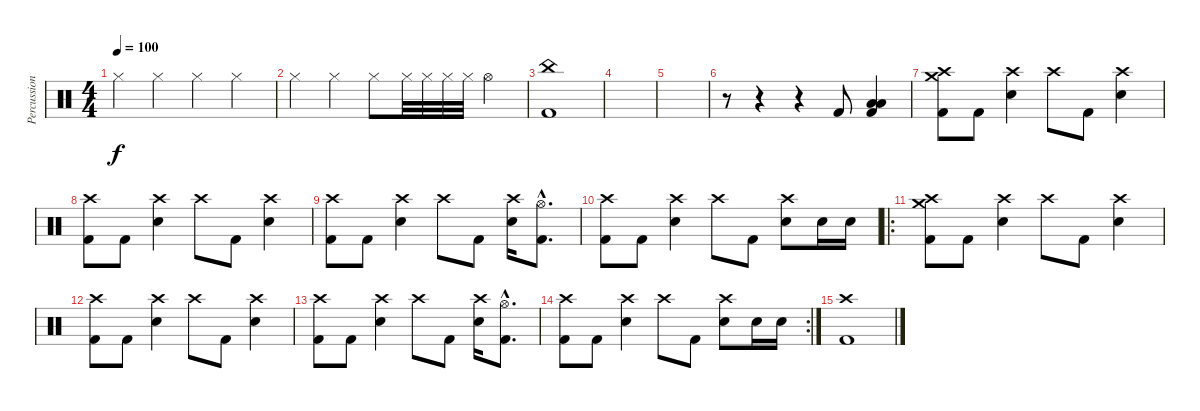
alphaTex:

\track ("Percussions" "Percussion") {instrument percussion}
\staff {score}
\articulation defaults
\ts (4 4)
\tempo 100
\clef neutral
\ks c "Hi-Hat (closed)".4{dy f} "Hi-Hat (closed)".4 "Hi-Hat (closed)".4 "Hi-Hat (closed)".4
|
"Hi-Hat (closed)".4 "Hi-Hat (closed)".4 "Hi-Hat (closed)".8 "Hi-Hat (closed)".32 "Hi-Hat (closed)".32 "Hi-Hat (closed)".32 "Hi-Hat (closed)".32 "Hi-Hat (open)".4 |
("China (hit)" "Kick (hit) 2").1 |
|
|
r.8 r.4 r.4 "Kick (hit) 2".8 ("Low Floor Tom (hit)" "Low Floor Tom (hit)" "Kick (hit) 2").4 |
("Crash high (hit)" "Crash medium (hit)" "Kick (hit) 2").8 "Kick (hit) 2".8 ("Crash high (hit)" "Snare (hit) 2").4 "Crash high (hit)".8 "Kick (hit) 2".8 ("Crash high (hit)" "Snare (hit) 2").4 |
("Crash high (hit)" "Kick (hit) 2").8 "Kick (hit) 2".8 ("Crash high (hit)" "Snare (hit) 2").4 "Crash high (hit)".8 "Kick (hit) 2".8 ("Crash high (hit)" "Snare (hit) 2").4 |
("Crash high (hit)" "Kick (hit) 2").8 "Kick (hit) 2".8 ("Crash high (hit)" "Snare (hit) 2").4 "Crash high (hit)".8 "Kick (hit) 2".8 ("Crash high (hit)" "Snare (hit) 2").16 ("Hi-Hat (open)"{hac} "Kick (hit) 2"{hac}).8{d} |
("Crash high (hit)" "Kick (hit) 2").8 "Kick (hit) 2".8 ("Crash high (hit)" "Snare (hit) 2").4 "Crash high (hit)".8 "Kick (hit) 2".8 ("Crash high (hit)" "Snare (hit) 2").8 "Snare (hit) 2".16 "Snare (hit) 2".16 |
\ro
("Crash high (hit)" "Crash medium (hit)" "Kick (hit) 2").8 "Kick (hit) 2".8 ("Crash high (hit)" "Snare (hit) 2").4 "Crash high (hit)".8 "Kick (hit) 2".8 ("Crash high (hit)" "Snare (hit) 2").4 |
("Crash high (hit)" "Kick (hit) 2").8 "Kick (hit) 2".8 ("Crash high (hit)" "Snare (hit) 2").4 "Crash high (hit)".8 "Kick (hit) 2".8 ("Crash high (hit)" "Snare (hit) 2").4 |
("Crash high (hit)" "Kick (hit) 2").8 "Kick (hit) 2".8 ("Crash high (hit)" "Snare (hit) 2").4 "Crash high (hit)".8 "Kick (hit) 2".8 ("Crash high (hit)" "Snare (hit) 2").16 ("Hi-Hat (open)"{hac} "Kick (hit) 2"{hac}).8{d} |
\rc 2
("Crash high (hit)" "Kick (hit) 2").8 "Kick (hit) 2".8 ("Crash high (hit)" "Snare (hit) 2").4 "Crash high (hit)".8 "Kick (hit) 2".8 ("Crash high (hit)" "Snare (hit) 2").8 "Snare (hit) 2".16 "Snare (hit) 2".16 |
("Crash high (hit)" "Kick (hit) 2").1
